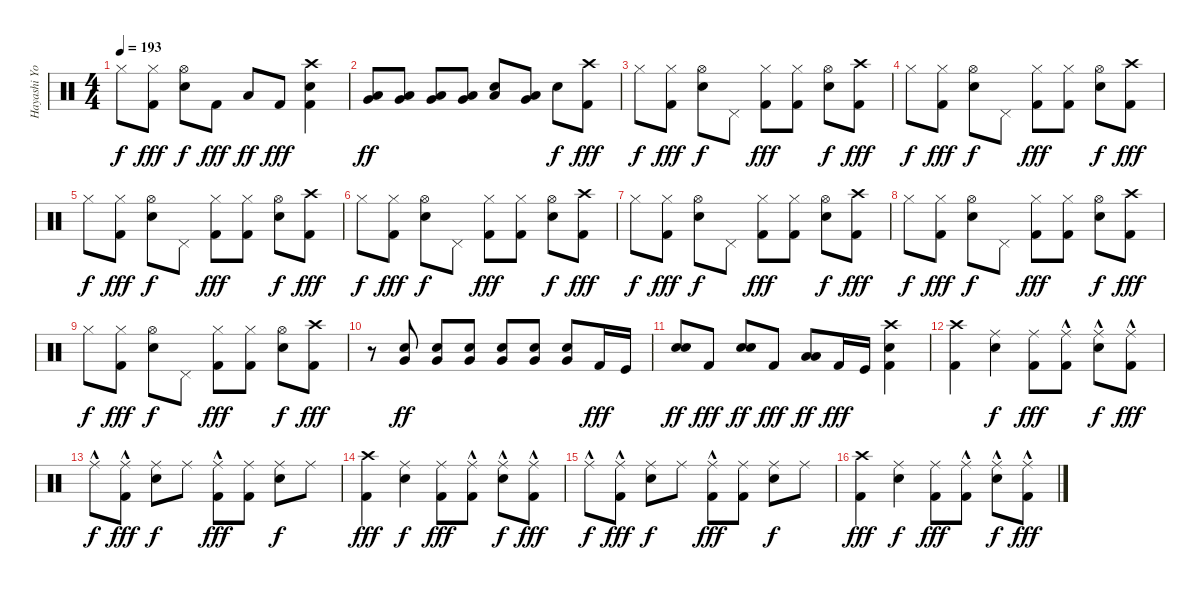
\track ("Hayashi Yoshiki(Yoshiki)" "Hayashi Yo") {instrument percussion}
\staff {score}
\articulation defaults
\ts (4 4)
\tempo 193
\clef neutral
\ks c "Hi-Hat (closed)".8{dy f}
("Hi-Hat (closed)" "Kick (hit) 2").8{dy fff} ("Hi-Hat (open)" "Electric Snare (hit)").8{dy f} "Kick (hit) 2".8{dy fff} "Low Tom (hit)".8{dy ff} "Kick (hit) 2".8{dy fff} ("Crash high (hit)" "Electric Snare (hit)" "Kick (hit) 2").4 |
("Very Low Tom (hit)" "Low Tom (hit)").8{dy ff} ("Very Low Tom (hit)" "Low Tom (hit)").8 ("Very Low Tom (hit)" "Low Tom (hit)").8 ("Very Low Tom (hit)" "Low Tom (hit)").8 ("Metronome (bell)" "Low Tom (hit)").8 ("Very Low Tom (hit)" "Low Tom (hit)").8 "Electric Snare (hit)".8{dy f} ("Crash high (hit)" "Kick (hit) 2").8{dy fff} |
"Hi-Hat (closed)".8{dy f} ("Hi-Hat (closed)" "Kick (hit) 2").8{dy fff} ("Hi-Hat (open)" "Electric Snare (hit)").8{dy f} "Pedal Hi-Hat (hit)".8 ("Hi-Hat (closed)" "Kick (hit) 2").8{dy fff} ("Hi-Hat (closed)" "Kick (hit) 2").8 ("Hi-Hat (open)" "Electric Snare (hit)").8{dy f} ("Crash high (hit)" "Kick (hit) 2").8{dy fff} |
"Hi-Hat (closed)".8{dy f} ("Hi-Hat (closed)" "Kick (hit) 2").8{dy fff} ("Hi-Hat (open)" "Electric Snare (hit)").8{dy f} "Pedal Hi-Hat (hit)".8 ("Hi-Hat (closed)" "Kick (hit) 2").8{dy fff} ("Hi-Hat (closed)" "Kick (hit) 2").8 ("Hi-Hat (open)" "Electric Snare (hit)").8{dy f} ("Crash high (hit)" "Kick (hit) 2").8{dy fff} |
"Hi-Hat (closed)".8{dy f} ("Hi-Hat (closed)" "Kick (hit) 2").8{dy fff} ("Hi-Hat (open)" "Electric Snare (hit)").8{dy f} "Pedal Hi-Hat (hit)".8 ("Hi-Hat (closed)" "Kick (hit) 2").8{dy fff} ("Hi-Hat (closed)" "Kick (hit) 2").8 ("Hi-Hat (open)" "Electric Snare (hit)").8{dy f} ("Crash high (hit)" "Kick (hit) 2").8{dy fff} |
"Hi-Hat (closed)".8{dy f} ("Hi-Hat (closed)" "Kick (hit) 2").8{dy fff} ("Hi-Hat (open)" "Electric Snare (hit)").8{dy f} "Pedal Hi-Hat (hit)".8 ("Hi-Hat (closed)" "Kick (hit) 2").8{dy fff} ("Hi-Hat (closed)" "Kick (hit) 2").8 ("Hi-Hat (open)" "Electric Snare (hit)").8{dy f} ("Crash high (hit)" "Kick (hit) 2").8{dy fff} |
"Hi-Hat (closed)".8{dy f} ("Hi-Hat (closed)" "Kick (hit) 2").8{dy fff} ("Hi-Hat (open)" "Electric Snare (hit)").8{dy f} "Pedal Hi-Hat (hit)".8 ("Hi-Hat (closed)" "Kick (hit) 2").8{dy fff} ("Hi-Hat (closed)" "Kick (hit) 2").8 ("Hi-Hat (open)" "Electric Snare (hit)").8{dy f} ("Crash high (hit)" "Kick (hit) 2").8{dy fff} |
"Hi-Hat (closed)".8{dy f} ("Hi-Hat (closed)" "Kick (hit) 2").8{dy fff} ("Hi-Hat (open)" "Electric Snare (hit)").8{dy f} "Pedal Hi-Hat (hit)".8 ("Hi-Hat (closed)" "Kick (hit) 2").8{dy fff} ("Hi-Hat (closed)" "Kick (hit) 2").8 ("Hi-Hat (open)" "Electric Snare (hit)").8{dy f} ("Crash high (hit)" "Kick (hit) 2").8{dy fff} |
"Hi-Hat (closed)".8{dy f} ("Hi-Hat (closed)" "Kick (hit) 2").8{dy fff} ("Hi-Hat (open)" "Electric Snare (hit)").8{dy f} "Pedal Hi-Hat (hit)".8 ("Hi-Hat (closed)" "Kick (hit) 2").8{dy fff} ("Hi-Hat (closed)" "Kick (hit) 2").8 ("Hi-Hat (open)" "Electric Snare (hit)").8{dy f} ("Crash high (hit)" "Kick (hit) 2").8{dy fff} |
r.8 ("Very Low Tom (hit)" "Electric Snare (hit)").8{dy ff} ("Very Low Tom (hit)" "Electric Snare (hit)").8 ("Very Low Tom (hit)" "Electric Snare (hit)").8 ("Very Low Tom (hit)" "Electric Snare (hit)").8 ("Very Low Tom (hit)" "Electric Snare (hit)").8 ("Very Low Tom (hit)" "Electric Snare (hit)").8 "Kick (hit) 2".16{dy fff} "Kick (hit)".16 |
("Electric Snare (hit)" "Electric Snare (hit)").8{dy ff} "Kick (hit) 2".8{dy fff} ("Electric Snare (hit)" "Electric Snare (hit)").8{dy ff} "Kick (hit) 2".8{dy fff} ("Low Tom (hit)" "Low Tom (hit)").8{dy ff} "Kick (hit) 2".16{dy fff} "Kick (hit)".16 ("Crash high (hit)" "Electric Snare (hit)" "Kick (hit) 2").4 |
("Crash high (hit)" "Kick (hit) 2").4 ("Ride (middle)" "Electric Snare (hit)").4{dy f} ("Ride (middle)" "Kick (hit) 2").8{dy fff} ("Ride (middle)"{hac} "Kick (hit) 2").8 ("Ride (middle)"{hac} "Electric Snare (hit)").8{dy f} ("Ride (middle)"{hac} "Kick (hit) 2").8{dy fff} |
"Ride (middle)"{hac}.8{dy f} ("Ride (middle)"{hac} "Kick (hit) 2").8{dy fff} ("Ride (middle)" "Electric Snare (hit)").8{dy f} "Ride (middle)".8 ("Ride (middle)"{hac} "Kick (hit) 2").8{dy fff} ("Ride (middle)" "Kick (hit) 2").8 ("Ride (middle)" "Electric Snare (hit)").8{dy f} "Ride (middle)".8 |
("Crash high (hit)" "Kick (hit) 2").4{dy fff} ("Ride (middle)" "Electric Snare (hit)").4{dy f} ("Ride (middle)" "Kick (hit) 2").8{dy fff} ("Ride (middle)"{hac} "Kick (hit) 2").8 ("Ride (middle)"{hac} "Electric Snare (hit)").8{dy f} ("Ride (middle)"{hac} "Kick (hit) 2").8{dy fff} |
"Ride (middle)"{hac}.8{dy f} ("Ride (middle)"{hac} "Kick (hit) 2").8{dy fff} ("Ride (middle)" "Electric Snare (hit)").8{dy f} "Ride (middle)".8 ("Ride (middle)"{hac} "Kick (hit) 2").8{dy fff} ("Ride (middle)" "Kick (hit) 2").8 ("Ride (middle)" "Electric Snare (hit)").8{dy f} "Ride (middle)".8 |
("Crash high (hit)" "Kick (hit) 2").4{dy fff} ("Ride (middle)" "Electric Snare (hit)").4{dy f} ("Ride (middle)" "Kick (hit) 2").8{dy fff} ("Ride (middle)"{hac} "Kick (hit) 2").8 ("Ride (middle)"{hac} "Electric Snare (hit)").8{dy f} ("Ride (middle)"{hac} "Kick (hit) 2").8{dy fff}
